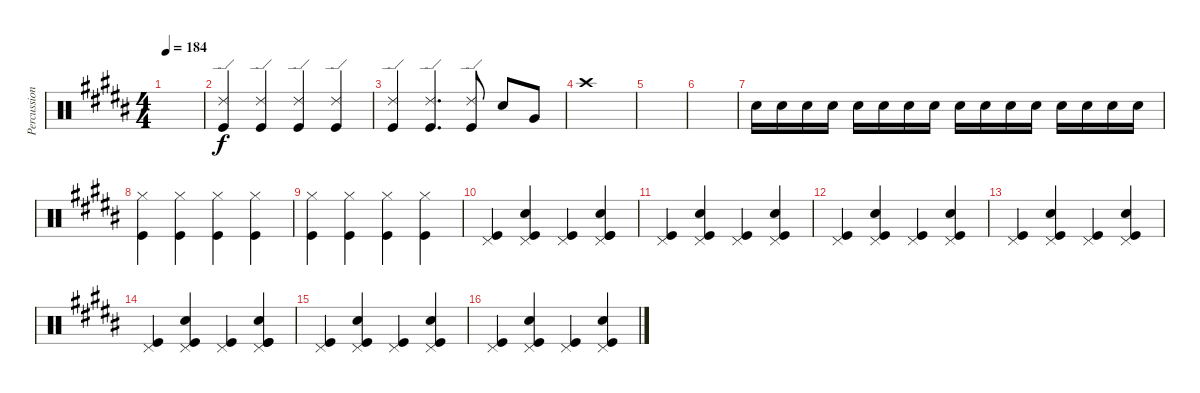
\track ("Percussion" "Percussion") {instrument percussion}
\staff {score}
\articulation defaults
\ts (4 4)
\tempo 184
\clef neutral
\ks b
|
("Kick (hit)" "Ride (edge) 2").4 ("Kick (hit)" "Ride (edge) 2").4 ("Kick (hit)" "Ride (edge) 2").4 ("Kick (hit)" "Ride (edge) 2").4 |
("Kick (hit)" "Ride (edge) 2").4 ("Kick (hit)" "Ride (edge) 2").4{d} ("Kick (hit)" "Ride (edge) 2").8 "Snare (hit) 2".8 "Very Low Tom (hit)".8 |
"Crash high (hit)".1 |
|
|
"Snare (hit) 2".16 "Snare (hit) 2".16 "Snare (hit) 2".16 "Snare (hit) 2".16 "Snare (hit) 2".16 "Snare (hit) 2".16 "Snare (hit) 2".16 "Snare (hit) 2".16 "Snare (hit) 2".16 "Snare (hit) 2".16 "Snare (hit) 2".16 "Snare (hit) 2".16 "Snare (hit) 2".16 "Snare (hit) 2".16 "Snare (hit) 2".16 "Snare (hit) 2".16 |
("Kick (hit)" "Hi-Hat (closed)").4 ("Kick (hit)" "Hi-Hat (closed)").4 ("Kick (hit)" "Hi-Hat (closed)").4 ("Kick (hit)" "Hi-Hat (closed)").4 |
("Kick (hit)" "Hi-Hat (closed)").4 ("Kick (hit)" "Hi-Hat (closed)").4 ("Kick (hit)" "Hi-Hat (closed)").4 ("Kick (hit)" "Hi-Hat (closed)").4 |
("Kick (hit)" "Pedal Hi-Hat (hit)").4 ("Kick (hit)" "Pedal Hi-Hat (hit)" "Snare (hit) 2").4 ("Kick (hit)" "Pedal Hi-Hat (hit)").4 ("Kick (hit)" "Pedal Hi-Hat (hit)" "Kick (hit)" "Snare (hit) 2").4 |
("Kick (hit)" "Pedal Hi-Hat (hit)").4 ("Kick (hit)" "Pedal Hi-Hat (hit)" "Snare (hit) 2").4 ("Kick (hit)" "Pedal Hi-Hat (hit)").4 ("Kick (hit)" "Pedal Hi-Hat (hit)" "Snare (hit) 2").4 |
("Kick (hit)" "Pedal Hi-Hat (hit)").4 ("Kick (hit)" "Pedal Hi-Hat (hit)" "Snare (hit) 2").4 ("Kick (hit)" "Pedal Hi-Hat (hit)").4 ("Kick (hit)" "Pedal Hi-Hat (hit)" "Snare (hit) 2").4 |
("Pedal Hi-Hat (hit)" "Kick (hit)").4 ("Kick (hit)" "Pedal Hi-Hat (hit)" "Snare (hit) 2").4 ("Kick (hit)" "Pedal Hi-Hat (hit)").4 ("Kick (hit)" "Pedal Hi-Hat (hit)" "Snare (hit) 2").4 |
("Kick (hit)" "Pedal Hi-Hat (hit)").4 ("Kick (hit)" "Pedal Hi-Hat (hit)" "Snare (hit) 2").4 ("Kick (hit)" "Pedal Hi-Hat (hit)").4 ("Kick (hit)" "Pedal Hi-Hat (hit)" "Kick (hit)" "Snare (hit) 2").4 |
("Kick (hit)" "Pedal Hi-Hat (hit)").4 ("Kick (hit)" "Pedal Hi-Hat (hit)" "Snare (hit) 2").4 ("Kick (hit)" "Pedal Hi-Hat (hit)").4 ("Kick (hit)" "Pedal Hi-Hat (hit)" "Snare (hit) 2").4 |
("Kick (hit)" "Pedal Hi-Hat (hit)").4 ("Kick (hit)" "Pedal Hi-Hat (hit)" "Snare (hit) 2").4 ("Kick (hit)" "Pedal Hi-Hat (hit)").4 ("Kick (hit)" "Pedal Hi-Hat (hit)" "Snare (hit) 2").4
